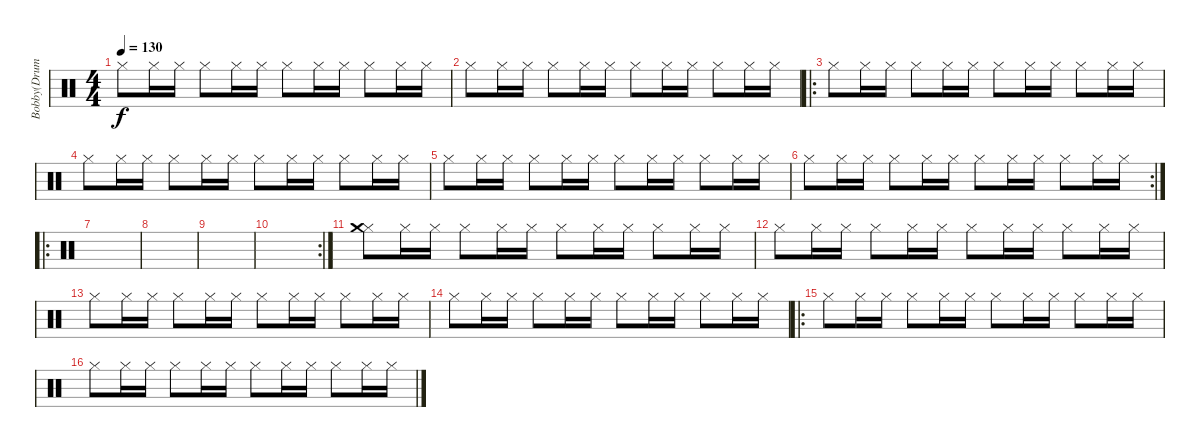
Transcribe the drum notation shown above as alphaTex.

\track ("Bobby(DrumSynth)" "Bobby(Drum") {instrument percussion}
\staff {score}
\articulation defaults
\ts (4 4)
\tempo 130
\clef neutral
\ks c "Hi-Hat (closed)".8{dy f} "Hi-Hat (closed)".16 "Hi-Hat (closed)".16 "Hi-Hat (closed)".8 "Hi-Hat (closed)".16 "Hi-Hat (closed)".16 "Hi-Hat (closed)".8 "Hi-Hat (closed)".16 "Hi-Hat (closed)".16 "Hi-Hat (closed)".8 "Hi-Hat (closed)".16 "Hi-Hat (closed)".16
|
"Hi-Hat (closed)".8 "Hi-Hat (closed)".16 "Hi-Hat (closed)".16 "Hi-Hat (closed)".8 "Hi-Hat (closed)".16 "Hi-Hat (closed)".16 "Hi-Hat (closed)".8 "Hi-Hat (closed)".16 "Hi-Hat (closed)".16 "Hi-Hat (closed)".8 "Hi-Hat (closed)".16 "Hi-Hat (closed)".16 |
\ro "Hi-Hat (closed)".8 "Hi-Hat (closed)".16 "Hi-Hat (closed)".16 "Hi-Hat (closed)".8 "Hi-Hat (closed)".16 "Hi-Hat (closed)".16 "Hi-Hat (closed)".8 "Hi-Hat (closed)".16 "Hi-Hat (closed)".16 "Hi-Hat (closed)".8 "Hi-Hat (closed)".16 "Hi-Hat (closed)".16
|
"Hi-Hat (closed)".8 "Hi-Hat (closed)".16 "Hi-Hat (closed)".16 "Hi-Hat (closed)".8 "Hi-Hat (closed)".16 "Hi-Hat (closed)".16 "Hi-Hat (closed)".8 "Hi-Hat (closed)".16 "Hi-Hat (closed)".16 "Hi-Hat (closed)".8 "Hi-Hat (closed)".16 "Hi-Hat (closed)".16 |
"Hi-Hat (closed)".8 "Hi-Hat (closed)".16 "Hi-Hat (closed)".16 "Hi-Hat (closed)".8 "Hi-Hat (closed)".16 "Hi-Hat (closed)".16 "Hi-Hat (closed)".8 "Hi-Hat (closed)".16 "Hi-Hat (closed)".16 "Hi-Hat (closed)".8 "Hi-Hat (closed)".16 "Hi-Hat (closed)".16 |
\rc 2 "Hi-Hat (closed)".8 "Hi-Hat (closed)".16 "Hi-Hat (closed)".16 "Hi-Hat (closed)".8 "Hi-Hat (closed)".16 "Hi-Hat (closed)".16 "Hi-Hat (closed)".8 "Hi-Hat (closed)".16 "Hi-Hat (closed)".16 "Hi-Hat (closed)".8 "Hi-Hat (closed)".16 "Hi-Hat (closed)".16
|
\ro
|
|
|
\rc 2
|
("Hi-Hat (closed)" "Crash medium (hit)").8 "Hi-Hat (closed)".16 "Hi-Hat (closed)".16 "Hi-Hat (closed)".8 "Hi-Hat (closed)".16 "Hi-Hat (closed)".16 "Hi-Hat (closed)".8 "Hi-Hat (closed)".16 "Hi-Hat (closed)".16 "Hi-Hat (closed)".8 "Hi-Hat (closed)".16 "Hi-Hat (closed)".16 |
"Hi-Hat (closed)".8 "Hi-Hat (closed)".16 "Hi-Hat (closed)".16 "Hi-Hat (closed)".8 "Hi-Hat (closed)".16 "Hi-Hat (closed)".16 "Hi-Hat (closed)".8 "Hi-Hat (closed)".16 "Hi-Hat (closed)".16 "Hi-Hat (closed)".8 "Hi-Hat (closed)".16 "Hi-Hat (closed)".16 |
"Hi-Hat (closed)".8 "Hi-Hat (closed)".16 "Hi-Hat (closed)".16 "Hi-Hat (closed)".8 "Hi-Hat (closed)".16 "Hi-Hat (closed)".16 "Hi-Hat (closed)".8 "Hi-Hat (closed)".16 "Hi-Hat (closed)".16 "Hi-Hat (closed)".8 "Hi-Hat (closed)".16 "Hi-Hat (closed)".16 |
"Hi-Hat (closed)".8 "Hi-Hat (closed)".16 "Hi-Hat (closed)".16 "Hi-Hat (closed)".8 "Hi-Hat (closed)".16 "Hi-Hat (closed)".16 "Hi-Hat (closed)".8 "Hi-Hat (closed)".16 "Hi-Hat (closed)".16 "Hi-Hat (closed)".8 "Hi-Hat (closed)".16 "Hi-Hat (closed)".16 |
\ro "Hi-Hat (closed)".8 "Hi-Hat (closed)".16 "Hi-Hat (closed)".16 "Hi-Hat (closed)".8 "Hi-Hat (closed)".16 "Hi-Hat (closed)".16 "Hi-Hat (closed)".8 "Hi-Hat (closed)".16 "Hi-Hat (closed)".16 "Hi-Hat (closed)".8 "Hi-Hat (closed)".16 "Hi-Hat (closed)".16
|
"Hi-Hat (closed)".8 "Hi-Hat (closed)".16 "Hi-Hat (closed)".16 "Hi-Hat (closed)".8 "Hi-Hat (closed)".16 "Hi-Hat (closed)".16 "Hi-Hat (closed)".8 "Hi-Hat (closed)".16 "Hi-Hat (closed)".16 "Hi-Hat (closed)".8 "Hi-Hat (closed)".16 "Hi-Hat (closed)".16
